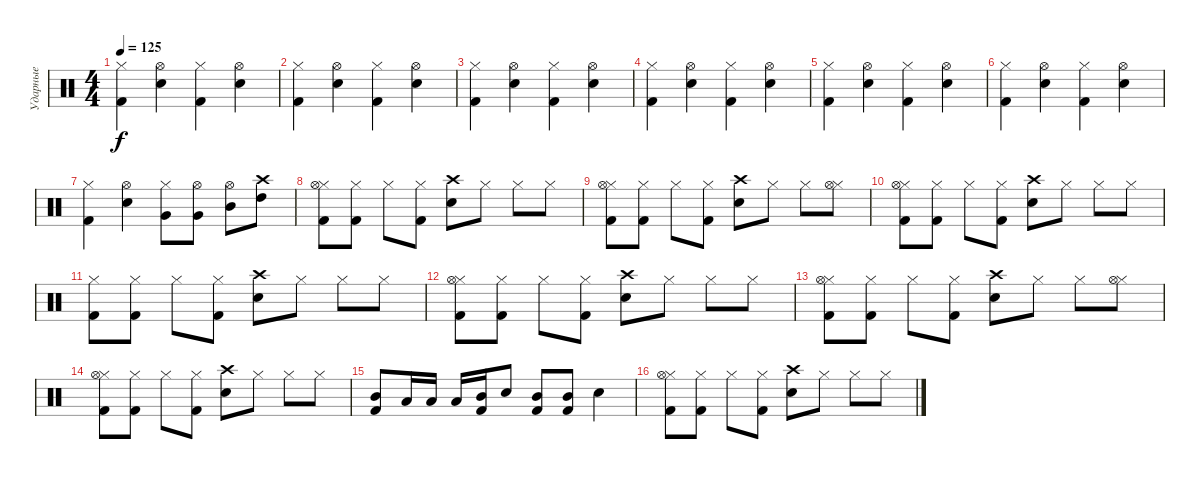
\track ("Ударные" "Ударные") {instrument percussion}
\staff {score}
\articulation defaults
\ts (4 4)
\tempo 125
\clef neutral
\ks c
("Hi-Hat (closed)" "Kick (hit) 2").4{dy f} ("Hi-Hat (open)" "Electric Snare (hit)").4 ("Hi-Hat (closed)" "Kick (hit) 2").4 ("Hi-Hat (open)" "Electric Snare (hit)").4 |
("Hi-Hat (closed)" "Kick (hit) 2").4 ("Hi-Hat (open)" "Electric Snare (hit)").4 ("Hi-Hat (closed)" "Kick (hit) 2").4 ("Hi-Hat (open)" "Electric Snare (hit)").4 |
("Hi-Hat (closed)" "Kick (hit) 2").4 ("Hi-Hat (open)" "Electric Snare (hit)").4 ("Hi-Hat (closed)" "Kick (hit) 2").4 ("Hi-Hat (open)" "Electric Snare (hit)").4 |
("Hi-Hat (closed)" "Kick (hit) 2").4 ("Hi-Hat (open)" "Electric Snare (hit)").4 ("Hi-Hat (closed)" "Kick (hit) 2").4 ("Hi-Hat (open)" "Electric Snare (hit)").4 |
("Hi-Hat (closed)" "Kick (hit) 2").4 ("Hi-Hat (open)" "Electric Snare (hit)").4 ("Hi-Hat (closed)" "Kick (hit) 2").4 ("Hi-Hat (open)" "Electric Snare (hit)").4 |
("Hi-Hat (closed)" "Kick (hit) 2").4 ("Hi-Hat (open)" "Electric Snare (hit)").4 ("Hi-Hat (closed)" "Kick (hit) 2").4 ("Hi-Hat (open)" "Electric Snare (hit)").4 |
("Hi-Hat (closed)" "Kick (hit) 2").4 ("Hi-Hat (open)" "Electric Snare (hit)").4 ("Hi-Hat (closed)" "Very Low Tom (hit)").8 ("Hi-Hat (open)" "Very Low Tom (hit)").8 ("Hi-Hat (open)" "Mid Tom (hit)").8 ("Crash high (hit)" "High Tom (hit)").8 |
("Kick (hit) 2" "Hi-Hat (closed)" "Hi-Hat (open)").8 ("Kick (hit) 2" "Hi-Hat (closed)").8 "Hi-Hat (closed)".8 ("Kick (hit) 2" "Hi-Hat (closed)").8 ("Electric Snare (hit)" "Crash high (hit)").8 "Hi-Hat (closed)".8 "Hi-Hat (closed)".8 "Hi-Hat (closed)".8 |
("Kick (hit) 2" "Hi-Hat (closed)" "Hi-Hat (open)").8 ("Kick (hit) 2" "Hi-Hat (closed)").8 "Hi-Hat (closed)".8 ("Kick (hit) 2" "Hi-Hat (closed)").8 ("Electric Snare (hit)" "Crash high (hit)").8 "Hi-Hat (closed)".8 "Hi-Hat (closed)".8 ("Hi-Hat (closed)" "Hi-Hat (open)").8 |
("Kick (hit) 2" "Hi-Hat (closed)" "Hi-Hat (open)").8 ("Kick (hit) 2" "Hi-Hat (closed)").8 "Hi-Hat (closed)".8 ("Kick (hit) 2" "Hi-Hat (closed)").8 ("Electric Snare (hit)" "Crash high (hit)").8 "Hi-Hat (closed)".8 "Hi-Hat (closed)".8 "Hi-Hat (closed)".8 |
("Kick (hit) 2" "Hi-Hat (closed)").8 ("Kick (hit) 2" "Hi-Hat (closed)").8 "Hi-Hat (closed)".8 ("Kick (hit) 2" "Hi-Hat (closed)").8 ("Electric Snare (hit)" "Crash high (hit)").8 "Hi-Hat (closed)".8 "Hi-Hat (closed)".8 "Hi-Hat (closed)".8 |
("Kick (hit) 2" "Hi-Hat (closed)" "Hi-Hat (open)").8 ("Kick (hit) 2" "Hi-Hat (closed)").8 "Hi-Hat (closed)".8 ("Kick (hit) 2" "Hi-Hat (closed)").8 ("Electric Snare (hit)" "Crash high (hit)").8 "Hi-Hat (closed)".8 "Hi-Hat (closed)".8 "Hi-Hat (closed)".8 |
("Kick (hit) 2" "Hi-Hat (closed)" "Hi-Hat (open)").8 ("Kick (hit) 2" "Hi-Hat (closed)").8 "Hi-Hat (closed)".8 ("Kick (hit) 2" "Hi-Hat (closed)").8 ("Electric Snare (hit)" "Crash high (hit)").8 "Hi-Hat (closed)".8 "Hi-Hat (closed)".8 ("Hi-Hat (closed)" "Hi-Hat (open)").8 |
("Kick (hit) 2" "Hi-Hat (closed)" "Hi-Hat (open)").8 ("Kick (hit) 2" "Hi-Hat (closed)").8 "Hi-Hat (closed)".8 ("Kick (hit) 2" "Hi-Hat (closed)").8 ("Electric Snare (hit)" "Crash high (hit)").8 "Hi-Hat (closed)".8 "Hi-Hat (closed)".8 "Hi-Hat (closed)".8 |
("Mid Tom (hit)" "Kick (hit) 2").8 "Low Tom (hit)".16 "Low Tom (hit)".16 "Low Tom (hit)".16 ("Mid Tom (hit)" "Kick (hit) 2").16 "Electric Snare (hit)".8 ("Mid Tom (hit)" "Kick (hit) 2").8 ("Mid Tom (hit)" "Kick (hit) 2").8 "Electric Snare (hit)".4 |
("Kick (hit) 2" "Hi-Hat (closed)" "Hi-Hat (open)").8 ("Kick (hit) 2" "Hi-Hat (closed)").8 "Hi-Hat (closed)".8 ("Kick (hit) 2" "Hi-Hat (closed)").8 ("Electric Snare (hit)" "Crash high (hit)").8 "Hi-Hat (closed)".8 "Hi-Hat (closed)".8 "Hi-Hat (closed)".8
